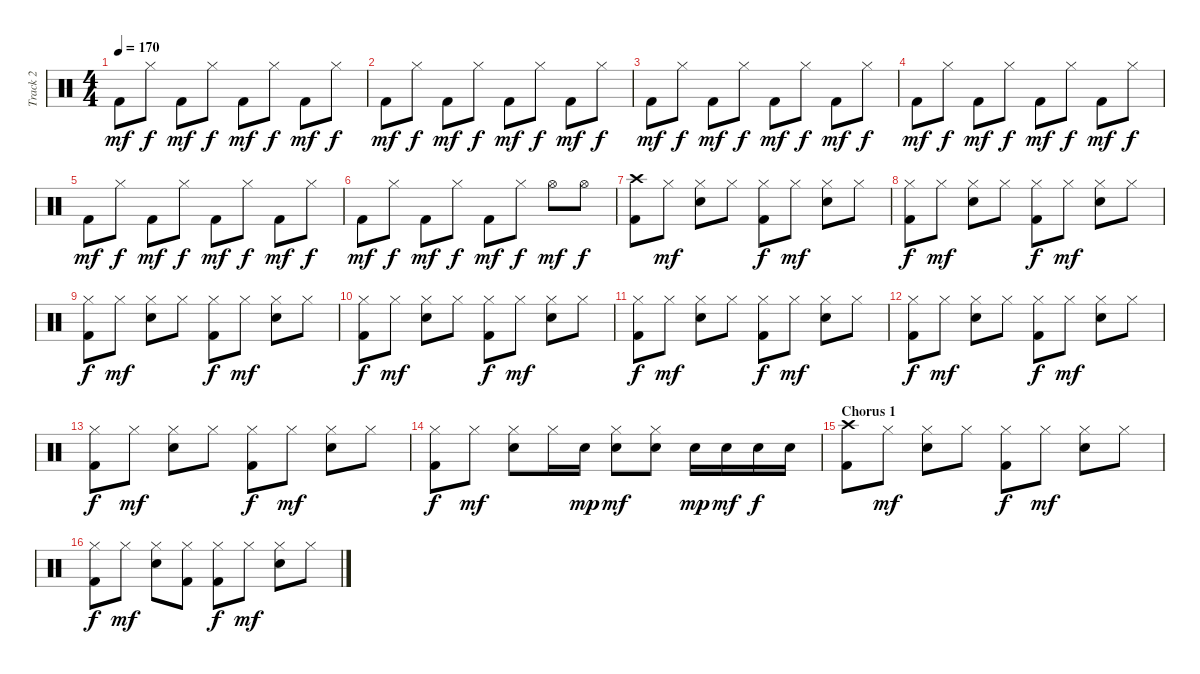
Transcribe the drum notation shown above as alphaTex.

\track ("Track 2" "Track 2") {instrument percussion}
\staff {score}
\articulation defaults
\ts (4 4)
\tempo 170
\clef neutral
\ks c "Kick (hit) 2".8{dy mf} "Hi-Hat (closed)".8{dy f} "Kick (hit) 2".8{dy mf} "Hi-Hat (closed)".8{dy f} "Kick (hit) 2".8{dy mf} "Hi-Hat (closed)".8{dy f} "Kick (hit) 2".8{dy mf} "Hi-Hat (closed)".8{dy f}
|
"Kick (hit) 2".8{dy mf} "Hi-Hat (closed)".8{dy f} "Kick (hit) 2".8{dy mf} "Hi-Hat (closed)".8{dy f} "Kick (hit) 2".8{dy mf} "Hi-Hat (closed)".8{dy f} "Kick (hit) 2".8{dy mf} "Hi-Hat (closed)".8{dy f} |
"Kick (hit) 2".8{dy mf} "Hi-Hat (closed)".8{dy f} "Kick (hit) 2".8{dy mf} "Hi-Hat (closed)".8{dy f} "Kick (hit) 2".8{dy mf} "Hi-Hat (closed)".8{dy f} "Kick (hit) 2".8{dy mf} "Hi-Hat (closed)".8{dy f} |
"Kick (hit) 2".8{dy mf} "Hi-Hat (closed)".8{dy f} "Kick (hit) 2".8{dy mf} "Hi-Hat (closed)".8{dy f} "Kick (hit) 2".8{dy mf} "Hi-Hat (closed)".8{dy f} "Kick (hit) 2".8{dy mf} "Hi-Hat (closed)".8{dy f} |
"Kick (hit) 2".8{dy mf} "Hi-Hat (closed)".8{dy f} "Kick (hit) 2".8{dy mf} "Hi-Hat (closed)".8{dy f} "Kick (hit) 2".8{dy mf} "Hi-Hat (closed)".8{dy f} "Kick (hit) 2".8{dy mf} "Hi-Hat (closed)".8{dy f} |
"Kick (hit) 2".8{dy mf} "Hi-Hat (closed)".8{dy f} "Kick (hit) 2".8{dy mf} "Hi-Hat (closed)".8{dy f} "Kick (hit) 2".8{dy mf} "Hi-Hat (closed)".8{dy f} "Hi-Hat (open)".8{dy mf} "Hi-Hat (open)".8{dy f} |
("Crash high (hit)" "Kick (hit) 2").8 "Hi-Hat (closed)".8{dy mf} ("Hi-Hat (closed)" "Electric Snare (hit)").8 "Hi-Hat (closed)".8 ("Hi-Hat (closed)" "Kick (hit) 2").8{dy f} "Hi-Hat (closed)".8{dy mf} ("Hi-Hat (closed)" "Electric Snare (hit)").8 "Hi-Hat (closed)".8 |
("Hi-Hat (closed)" "Kick (hit) 2").8{dy f} "Hi-Hat (closed)".8{dy mf} ("Hi-Hat (closed)" "Electric Snare (hit)").8 "Hi-Hat (closed)".8 ("Hi-Hat (closed)" "Kick (hit) 2").8{dy f} "Hi-Hat (closed)".8{dy mf} ("Hi-Hat (closed)" "Electric Snare (hit)").8 "Hi-Hat (closed)".8 |
("Hi-Hat (closed)" "Kick (hit) 2").8{dy f} "Hi-Hat (closed)".8{dy mf} ("Hi-Hat (closed)" "Electric Snare (hit)").8 "Hi-Hat (closed)".8 ("Hi-Hat (closed)" "Kick (hit) 2").8{dy f} "Hi-Hat (closed)".8{dy mf} ("Hi-Hat (closed)" "Electric Snare (hit)").8 "Hi-Hat (closed)".8 |
("Hi-Hat (closed)" "Kick (hit) 2").8{dy f} "Hi-Hat (closed)".8{dy mf} ("Hi-Hat (closed)" "Electric Snare (hit)").8 "Hi-Hat (closed)".8 ("Hi-Hat (closed)" "Kick (hit) 2").8{dy f} "Hi-Hat (closed)".8{dy mf} ("Hi-Hat (closed)" "Electric Snare (hit)").8 "Hi-Hat (closed)".8 |
("Hi-Hat (closed)" "Kick (hit) 2").8{dy f} "Hi-Hat (closed)".8{dy mf} ("Hi-Hat (closed)" "Electric Snare (hit)").8 "Hi-Hat (closed)".8 ("Hi-Hat (closed)" "Kick (hit) 2").8{dy f} "Hi-Hat (closed)".8{dy mf} ("Hi-Hat (closed)" "Electric Snare (hit)").8 "Hi-Hat (closed)".8 |
("Hi-Hat (closed)" "Kick (hit) 2").8{dy f} "Hi-Hat (closed)".8{dy mf} ("Hi-Hat (closed)" "Electric Snare (hit)").8 "Hi-Hat (closed)".8 ("Hi-Hat (closed)" "Kick (hit) 2").8{dy f} "Hi-Hat (closed)".8{dy mf} ("Hi-Hat (closed)" "Electric Snare (hit)").8 "Hi-Hat (closed)".8 |
("Hi-Hat (closed)" "Kick (hit) 2").8{dy f} "Hi-Hat (closed)".8{dy mf} ("Hi-Hat (closed)" "Electric Snare (hit)").8 "Hi-Hat (closed)".8 ("Hi-Hat (closed)" "Kick (hit) 2").8{dy f} "Hi-Hat (closed)".8{dy mf} ("Hi-Hat (closed)" "Electric Snare (hit)").8 "Hi-Hat (closed)".8 |
("Hi-Hat (closed)" "Kick (hit) 2").8{dy f} "Hi-Hat (closed)".8{dy mf} ("Hi-Hat (closed)" "Electric Snare (hit)").8 "Hi-Hat (closed)".16 "Electric Snare (hit)".16{dy mp} ("Hi-Hat (closed)" "Electric Snare (hit)").8{dy mf} ("Hi-Hat (closed)" "Electric Snare (hit)").8 "Electric Snare (hit)".16{dy mp} "Electric Snare (hit)".16{dy mf} "Electric Snare (hit)".16{dy f} "Electric Snare (hit)".16 |
\section ("" "Chorus 1")
("Crash high (hit)" "Kick (hit) 2").8 "Hi-Hat (closed)".8{dy mf} ("Hi-Hat (closed)" "Electric Snare (hit)").8 "Hi-Hat (closed)".8 ("Hi-Hat (closed)" "Kick (hit) 2").8{dy f} "Hi-Hat (closed)".8{dy mf} ("Hi-Hat (closed)" "Electric Snare (hit)").8 "Hi-Hat (closed)".8 |
("Hi-Hat (closed)" "Kick (hit) 2").8{dy f} "Hi-Hat (closed)".8{dy mf} ("Hi-Hat (closed)" "Electric Snare (hit)").8 ("Hi-Hat (closed)" "Kick (hit) 2").8 ("Hi-Hat (closed)" "Kick (hit) 2").8{dy f} "Hi-Hat (closed)".8{dy mf} ("Hi-Hat (closed)" "Electric Snare (hit)").8 "Hi-Hat (closed)".8
